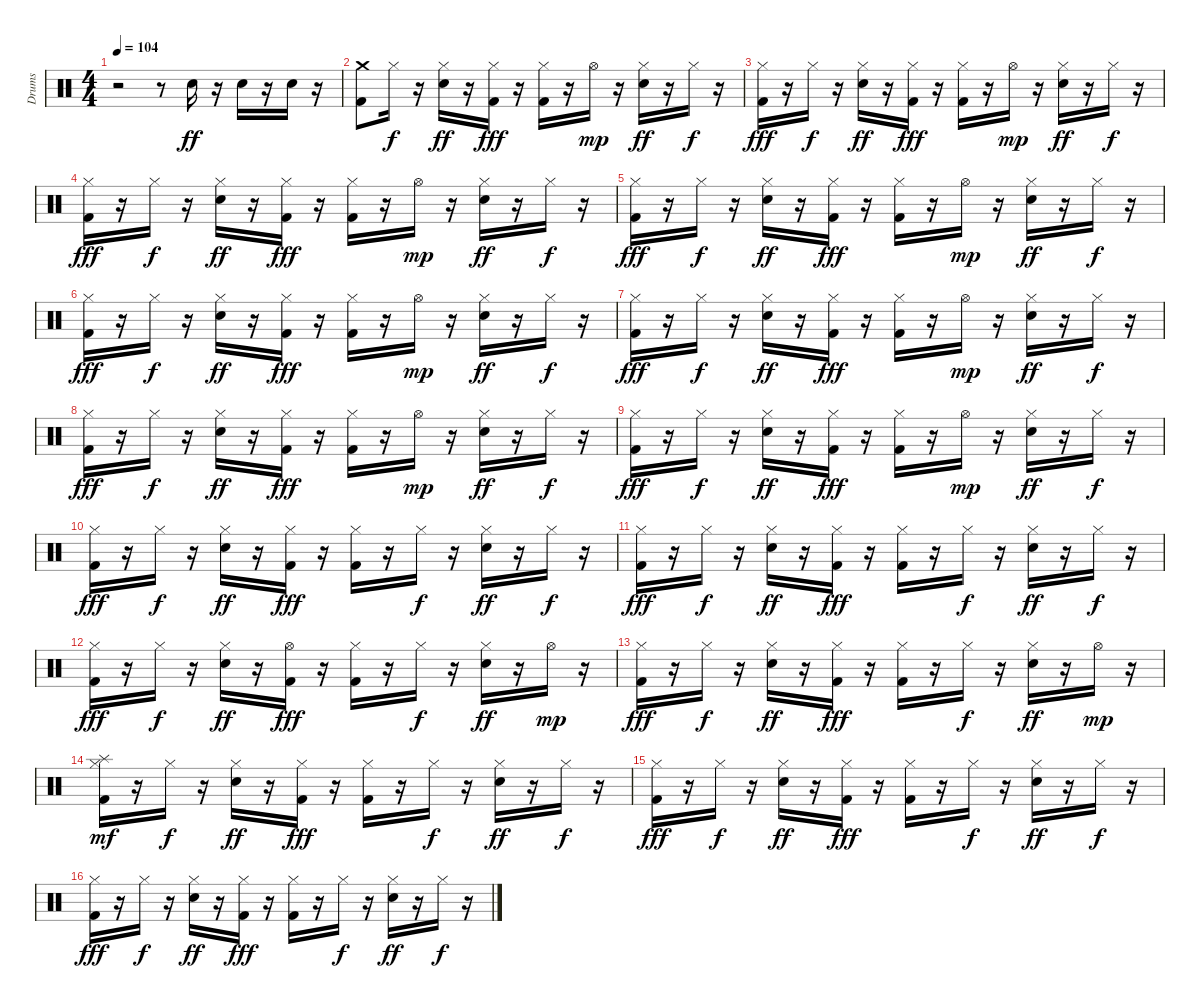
\track ("Drums" "Drums") {instrument percussion}
\staff {score}
\articulation defaults
\ts (4 4)
\tempo 104
\clef neutral
\ks c
r.2{dy ff} r.8 "Snare (hit) 2".16 r.16 "Snare (hit) 2".16 r.16 "Snare (hit) 2".16 r.16 |
("Kick (hit) 2" "Crash medium (hit)").8 "Hi-Hat (closed)".16{dy f} r.16 ("Hi-Hat (closed)" "Snare (hit) 2").16{dy ff} r.16 ("Hi-Hat (closed)" "Kick (hit) 2").16{dy fff} r.16 ("Hi-Hat (closed)" "Kick (hit) 2").16 r.16 "Hi-Hat (open)".16{dy mp} r.16 ("Hi-Hat (closed)" "Snare (hit) 2").16{dy ff} r.16 "Hi-Hat (closed)".16{dy f} r.16 |
("Hi-Hat (closed)" "Kick (hit) 2").16{dy fff} r.16 "Hi-Hat (closed)".16{dy f} r.16 ("Hi-Hat (closed)" "Snare (hit) 2").16{dy ff} r.16 ("Hi-Hat (closed)" "Kick (hit) 2").16{dy fff} r.16 ("Hi-Hat (closed)" "Kick (hit) 2").16 r.16 "Hi-Hat (open)".16{dy mp} r.16 ("Hi-Hat (closed)" "Snare (hit) 2").16{dy ff} r.16 "Hi-Hat (closed)".16{dy f} r.16 |
("Kick (hit) 2" "Hi-Hat (closed)").16{dy fff} r.16 "Hi-Hat (closed)".16{dy f} r.16 ("Hi-Hat (closed)" "Snare (hit) 2").16{dy ff} r.16 ("Hi-Hat (closed)" "Kick (hit) 2").16{dy fff} r.16 ("Hi-Hat (closed)" "Kick (hit) 2").16 r.16 "Hi-Hat (open)".16{dy mp} r.16 ("Hi-Hat (closed)" "Snare (hit) 2").16{dy ff} r.16 "Hi-Hat (closed)".16{dy f} r.16 |
("Hi-Hat (closed)" "Kick (hit) 2").16{dy fff} r.16 "Hi-Hat (closed)".16{dy f} r.16 ("Hi-Hat (closed)" "Snare (hit) 2").16{dy ff} r.16 ("Hi-Hat (closed)" "Kick (hit) 2").16{dy fff} r.16 ("Hi-Hat (closed)" "Kick (hit) 2").16 r.16 "Hi-Hat (open)".16{dy mp} r.16 ("Hi-Hat (closed)" "Snare (hit) 2").16{dy ff} r.16 "Hi-Hat (closed)".16{dy f} r.16 |
("Kick (hit) 2" "Hi-Hat (closed)").16{dy fff} r.16 "Hi-Hat (closed)".16{dy f} r.16 ("Hi-Hat (closed)" "Snare (hit) 2").16{dy ff} r.16 ("Hi-Hat (closed)" "Kick (hit) 2").16{dy fff} r.16 ("Hi-Hat (closed)" "Kick (hit) 2").16 r.16 "Hi-Hat (open)".16{dy mp} r.16 ("Hi-Hat (closed)" "Snare (hit) 2").16{dy ff} r.16 "Hi-Hat (closed)".16{dy f} r.16 |
("Hi-Hat (closed)" "Kick (hit) 2").16{dy fff} r.16 "Hi-Hat (closed)".16{dy f} r.16 ("Hi-Hat (closed)" "Snare (hit) 2").16{dy ff} r.16 ("Hi-Hat (closed)" "Kick (hit) 2").16{dy fff} r.16 ("Hi-Hat (closed)" "Kick (hit) 2").16 r.16 "Hi-Hat (open)".16{dy mp} r.16 ("Hi-Hat (closed)" "Snare (hit) 2").16{dy ff} r.16 "Hi-Hat (closed)".16{dy f} r.16 |
("Kick (hit) 2" "Hi-Hat (closed)").16{dy fff} r.16 "Hi-Hat (closed)".16{dy f} r.16 ("Hi-Hat (closed)" "Snare (hit) 2").16{dy ff} r.16 ("Hi-Hat (closed)" "Kick (hit) 2").16{dy fff} r.16 ("Hi-Hat (closed)" "Kick (hit) 2").16 r.16 "Hi-Hat (open)".16{dy mp} r.16 ("Hi-Hat (closed)" "Snare (hit) 2").16{dy ff} r.16 "Hi-Hat (closed)".16{dy f} r.16 |
("Hi-Hat (closed)" "Kick (hit) 2").16{dy fff} r.16 "Hi-Hat (closed)".16{dy f} r.16 ("Hi-Hat (closed)" "Snare (hit) 2").16{dy ff} r.16 ("Hi-Hat (closed)" "Kick (hit) 2").16{dy fff} r.16 ("Hi-Hat (closed)" "Kick (hit) 2").16 r.16 "Hi-Hat (open)".16{dy mp} r.16 ("Hi-Hat (closed)" "Snare (hit) 2").16{dy ff} r.16 "Hi-Hat (closed)".16{dy f} r.16 |
("Kick (hit) 2" "Hi-Hat (closed)").16{dy fff} r.16 "Hi-Hat (closed)".16{dy f} r.16 ("Hi-Hat (closed)" "Snare (hit) 2").16{dy ff} r.16 ("Hi-Hat (closed)" "Kick (hit) 2").16{dy fff} r.16 ("Hi-Hat (closed)" "Kick (hit) 2").16 r.16 "Hi-Hat (closed)".16{dy f} r.16 ("Hi-Hat (closed)" "Snare (hit) 2").16{dy ff} r.16 "Hi-Hat (closed)".16{dy f} r.16 |
("Hi-Hat (closed)" "Kick (hit) 2").16{dy fff} r.16 "Hi-Hat (closed)".16{dy f} r.16 ("Hi-Hat (closed)" "Snare (hit) 2").16{dy ff} r.16 ("Hi-Hat (closed)" "Kick (hit) 2").16{dy fff} r.16 ("Hi-Hat (closed)" "Kick (hit) 2").16 r.16 "Hi-Hat (closed)".16{dy f} r.16 ("Hi-Hat (closed)" "Snare (hit) 2").16{dy ff} r.16 "Hi-Hat (closed)".16{dy f} r.16 |
("Kick (hit) 2" "Hi-Hat (closed)").16{dy fff} r.16 "Hi-Hat (closed)".16{dy f} r.16 ("Hi-Hat (closed)" "Snare (hit) 2").16{dy ff} r.16 ("Hi-Hat (open)" "Kick (hit) 2").16{dy fff} r.16 ("Hi-Hat (closed)" "Kick (hit) 2").16 r.16 "Hi-Hat (closed)".16{dy f} r.16 ("Hi-Hat (closed)" "Snare (hit) 2").16{dy ff} r.16 "Hi-Hat (open)".16{dy mp} r.16 |
("Hi-Hat (closed)" "Kick (hit) 2").16{dy fff} r.16 "Hi-Hat (closed)".16{dy f} r.16 ("Hi-Hat (closed)" "Snare (hit) 2").16{dy ff} r.16 ("Hi-Hat (closed)" "Kick (hit) 2").16{dy fff} r.16 ("Hi-Hat (closed)" "Kick (hit) 2").16 r.16 "Hi-Hat (closed)".16{dy f} r.16 ("Hi-Hat (closed)" "Snare (hit) 2").16{dy ff} r.16 "Hi-Hat (open)".16{dy mp} r.16 |
("Kick (hit) 2" "Splash (hit)" "Hi-Hat (closed)").16{dy mf} r.16 "Hi-Hat (closed)".16{dy f} r.16 ("Hi-Hat (closed)" "Snare (hit) 2").16{dy ff} r.16 ("Hi-Hat (closed)" "Kick (hit) 2").16{dy fff} r.16 ("Hi-Hat (closed)" "Kick (hit) 2").16 r.16 "Hi-Hat (closed)".16{dy f} r.16 ("Hi-Hat (closed)" "Snare (hit) 2").16{dy ff} r.16 "Hi-Hat (closed)".16{dy f} r.16 |
("Hi-Hat (closed)" "Kick (hit) 2").16{dy fff} r.16 "Hi-Hat (closed)".16{dy f} r.16 ("Hi-Hat (closed)" "Snare (hit) 2").16{dy ff} r.16 ("Hi-Hat (closed)" "Kick (hit) 2").16{dy fff} r.16 ("Hi-Hat (closed)" "Kick (hit) 2").16 r.16 "Hi-Hat (closed)".16{dy f} r.16 ("Hi-Hat (closed)" "Snare (hit) 2").16{dy ff} r.16 "Hi-Hat (closed)".16{dy f} r.16 |
("Kick (hit) 2" "Hi-Hat (closed)").16{dy fff} r.16 "Hi-Hat (closed)".16{dy f} r.16 ("Hi-Hat (closed)" "Snare (hit) 2").16{dy ff} r.16 ("Hi-Hat (closed)" "Kick (hit) 2").16{dy fff} r.16 ("Hi-Hat (closed)" "Kick (hit) 2").16 r.16 "Hi-Hat (closed)".16{dy f} r.16 ("Hi-Hat (closed)" "Snare (hit) 2").16{dy ff} r.16 "Hi-Hat (closed)".16{dy f} r.16
